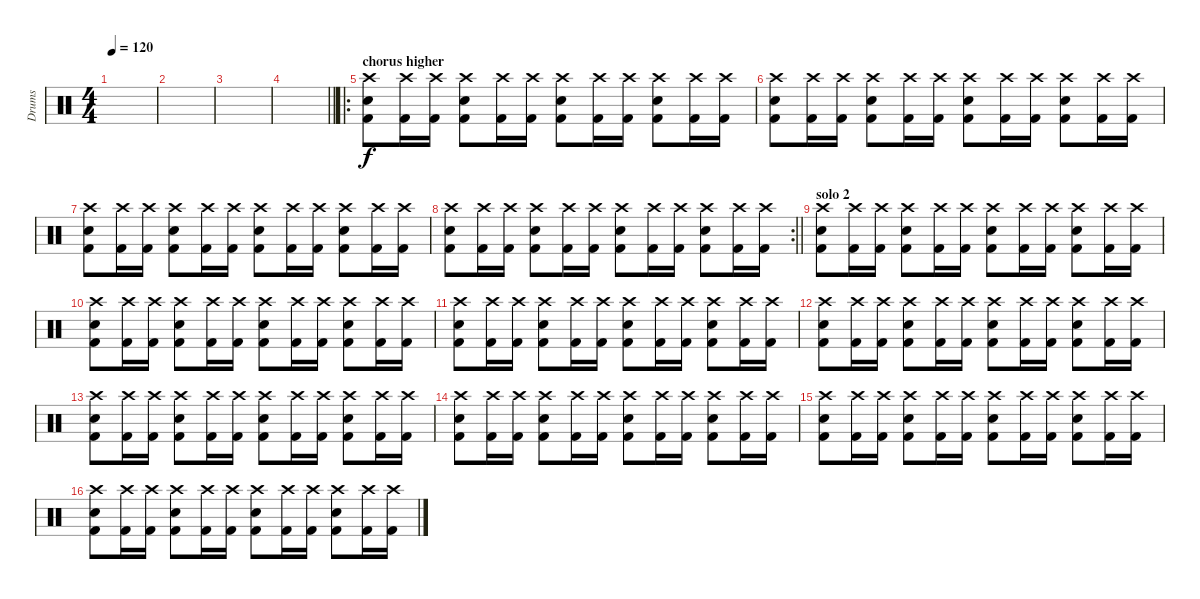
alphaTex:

\track ("Drums" "Drums") {instrument percussion}
\staff {score}
\articulation defaults
\ts (4 4)
\tempo 120
\clef neutral
\ks c
|
|
|
\barLineRight lightlight
|
\ro
\section ("" "chorus higher")
("Electric Snare (hit)" "Crash high (hit)" "Kick (hit) 2").8 ("Crash high (hit)" "Kick (hit) 2").16 ("Crash high (hit)" "Kick (hit) 2").16 ("Electric Snare (hit)" "Crash high (hit)" "Kick (hit) 2").8 ("Crash high (hit)" "Kick (hit) 2").16 ("Crash high (hit)" "Kick (hit) 2").16 ("Electric Snare (hit)" "Crash high (hit)" "Kick (hit) 2").8 ("Crash high (hit)" "Kick (hit) 2").16 ("Crash high (hit)" "Kick (hit) 2").16 ("Electric Snare (hit)" "Crash high (hit)" "Kick (hit) 2").8 ("Crash high (hit)" "Kick (hit) 2").16 ("Crash high (hit)" "Kick (hit) 2").16 |
("Electric Snare (hit)" "Crash high (hit)" "Kick (hit) 2").8 ("Crash high (hit)" "Kick (hit) 2").16 ("Crash high (hit)" "Kick (hit) 2").16 ("Electric Snare (hit)" "Crash high (hit)" "Kick (hit) 2").8 ("Crash high (hit)" "Kick (hit) 2").16 ("Crash high (hit)" "Kick (hit) 2").16 ("Electric Snare (hit)" "Crash high (hit)" "Kick (hit) 2").8 ("Crash high (hit)" "Kick (hit) 2").16 ("Crash high (hit)" "Kick (hit) 2").16 ("Electric Snare (hit)" "Crash high (hit)" "Kick (hit) 2").8 ("Crash high (hit)" "Kick (hit) 2").16 ("Crash high (hit)" "Kick (hit) 2").16 |
("Electric Snare (hit)" "Crash high (hit)" "Kick (hit) 2").8 ("Crash high (hit)" "Kick (hit) 2").16 ("Crash high (hit)" "Kick (hit) 2").16 ("Electric Snare (hit)" "Crash high (hit)" "Kick (hit) 2").8 ("Crash high (hit)" "Kick (hit) 2").16 ("Crash high (hit)" "Kick (hit) 2").16 ("Electric Snare (hit)" "Crash high (hit)" "Kick (hit) 2").8 ("Crash high (hit)" "Kick (hit) 2").16 ("Crash high (hit)" "Kick (hit) 2").16 ("Electric Snare (hit)" "Crash high (hit)" "Kick (hit) 2").8 ("Crash high (hit)" "Kick (hit) 2").16 ("Crash high (hit)" "Kick (hit) 2").16 |
\rc 2
\barLineRight lightlight
("Electric Snare (hit)" "Crash high (hit)" "Kick (hit) 2").8 ("Crash high (hit)" "Kick (hit) 2").16 ("Crash high (hit)" "Kick (hit) 2").16 ("Electric Snare (hit)" "Crash high (hit)" "Kick (hit) 2").8 ("Crash high (hit)" "Kick (hit) 2").16 ("Crash high (hit)" "Kick (hit) 2").16 ("Electric Snare (hit)" "Crash high (hit)" "Kick (hit) 2").8 ("Crash high (hit)" "Kick (hit) 2").16 ("Crash high (hit)" "Kick (hit) 2").16 ("Electric Snare (hit)" "Crash high (hit)" "Kick (hit) 2").8 ("Crash high (hit)" "Kick (hit) 2").16 ("Crash high (hit)" "Kick (hit) 2").16 |
\section ("" "solo 2")
("Electric Snare (hit)" "Crash high (hit)" "Kick (hit) 2").8 ("Crash high (hit)" "Kick (hit) 2").16 ("Crash high (hit)" "Kick (hit) 2").16 ("Electric Snare (hit)" "Crash high (hit)" "Kick (hit) 2").8 ("Crash high (hit)" "Kick (hit) 2").16 ("Crash high (hit)" "Kick (hit) 2").16 ("Electric Snare (hit)" "Crash high (hit)" "Kick (hit) 2").8 ("Crash high (hit)" "Kick (hit) 2").16 ("Crash high (hit)" "Kick (hit) 2").16 ("Electric Snare (hit)" "Crash high (hit)" "Kick (hit) 2").8 ("Crash high (hit)" "Kick (hit) 2").16 ("Crash high (hit)" "Kick (hit) 2").16 |
("Electric Snare (hit)" "Crash high (hit)" "Kick (hit) 2").8 ("Crash high (hit)" "Kick (hit) 2").16 ("Crash high (hit)" "Kick (hit) 2").16 ("Electric Snare (hit)" "Crash high (hit)" "Kick (hit) 2").8 ("Crash high (hit)" "Kick (hit) 2").16 ("Crash high (hit)" "Kick (hit) 2").16 ("Electric Snare (hit)" "Crash high (hit)" "Kick (hit) 2").8 ("Crash high (hit)" "Kick (hit) 2").16 ("Crash high (hit)" "Kick (hit) 2").16 ("Electric Snare (hit)" "Crash high (hit)" "Kick (hit) 2").8 ("Crash high (hit)" "Kick (hit) 2").16 ("Crash high (hit)" "Kick (hit) 2").16 |
("Electric Snare (hit)" "Crash high (hit)" "Kick (hit) 2").8 ("Crash high (hit)" "Kick (hit) 2").16 ("Crash high (hit)" "Kick (hit) 2").16 ("Electric Snare (hit)" "Crash high (hit)" "Kick (hit) 2").8 ("Crash high (hit)" "Kick (hit) 2").16 ("Crash high (hit)" "Kick (hit) 2").16 ("Electric Snare (hit)" "Crash high (hit)" "Kick (hit) 2").8 ("Crash high (hit)" "Kick (hit) 2").16 ("Crash high (hit)" "Kick (hit) 2").16 ("Electric Snare (hit)" "Crash high (hit)" "Kick (hit) 2").8 ("Crash high (hit)" "Kick (hit) 2").16 ("Crash high (hit)" "Kick (hit) 2").16 |
("Electric Snare (hit)" "Crash high (hit)" "Kick (hit) 2").8 ("Crash high (hit)" "Kick (hit) 2").16 ("Crash high (hit)" "Kick (hit) 2").16 ("Electric Snare (hit)" "Crash high (hit)" "Kick (hit) 2").8 ("Crash high (hit)" "Kick (hit) 2").16 ("Crash high (hit)" "Kick (hit) 2").16 ("Electric Snare (hit)" "Crash high (hit)" "Kick (hit) 2").8 ("Crash high (hit)" "Kick (hit) 2").16 ("Crash high (hit)" "Kick (hit) 2").16 ("Electric Snare (hit)" "Crash high (hit)" "Kick (hit) 2").8 ("Crash high (hit)" "Kick (hit) 2").16 ("Crash high (hit)" "Kick (hit) 2").16 |
("Electric Snare (hit)" "Crash high (hit)" "Kick (hit) 2").8 ("Crash high (hit)" "Kick (hit) 2").16 ("Crash high (hit)" "Kick (hit) 2").16 ("Electric Snare (hit)" "Crash high (hit)" "Kick (hit) 2").8 ("Crash high (hit)" "Kick (hit) 2").16 ("Crash high (hit)" "Kick (hit) 2").16 ("Electric Snare (hit)" "Crash high (hit)" "Kick (hit) 2").8 ("Crash high (hit)" "Kick (hit) 2").16 ("Crash high (hit)" "Kick (hit) 2").16 ("Electric Snare (hit)" "Crash high (hit)" "Kick (hit) 2").8 ("Crash high (hit)" "Kick (hit) 2").16 ("Crash high (hit)" "Kick (hit) 2").16 |
("Electric Snare (hit)" "Crash high (hit)" "Kick (hit) 2").8 ("Crash high (hit)" "Kick (hit) 2").16 ("Crash high (hit)" "Kick (hit) 2").16 ("Electric Snare (hit)" "Crash high (hit)" "Kick (hit) 2").8 ("Crash high (hit)" "Kick (hit) 2").16 ("Crash high (hit)" "Kick (hit) 2").16 ("Electric Snare (hit)" "Crash high (hit)" "Kick (hit) 2").8 ("Crash high (hit)" "Kick (hit) 2").16 ("Crash high (hit)" "Kick (hit) 2").16 ("Electric Snare (hit)" "Crash high (hit)" "Kick (hit) 2").8 ("Crash high (hit)" "Kick (hit) 2").16 ("Crash high (hit)" "Kick (hit) 2").16 |
("Electric Snare (hit)" "Crash high (hit)" "Kick (hit) 2").8 ("Crash high (hit)" "Kick (hit) 2").16 ("Crash high (hit)" "Kick (hit) 2").16 ("Electric Snare (hit)" "Crash high (hit)" "Kick (hit) 2").8 ("Crash high (hit)" "Kick (hit) 2").16 ("Crash high (hit)" "Kick (hit) 2").16 ("Electric Snare (hit)" "Crash high (hit)" "Kick (hit) 2").8 ("Crash high (hit)" "Kick (hit) 2").16 ("Crash high (hit)" "Kick (hit) 2").16 ("Electric Snare (hit)" "Crash high (hit)" "Kick (hit) 2").8 ("Crash high (hit)" "Kick (hit) 2").16 ("Crash high (hit)" "Kick (hit) 2").16 |
("Electric Snare (hit)" "Crash high (hit)" "Kick (hit) 2").8 ("Crash high (hit)" "Kick (hit) 2").16 ("Crash high (hit)" "Kick (hit) 2").16 ("Electric Snare (hit)" "Crash high (hit)" "Kick (hit) 2").8 ("Crash high (hit)" "Kick (hit) 2").16 ("Crash high (hit)" "Kick (hit) 2").16 ("Electric Snare (hit)" "Crash high (hit)" "Kick (hit) 2").8 ("Crash high (hit)" "Kick (hit) 2").16 ("Crash high (hit)" "Kick (hit) 2").16 ("Electric Snare (hit)" "Crash high (hit)" "Kick (hit) 2").8 ("Crash high (hit)" "Kick (hit) 2").16 ("Crash high (hit)" "Kick (hit) 2").16
